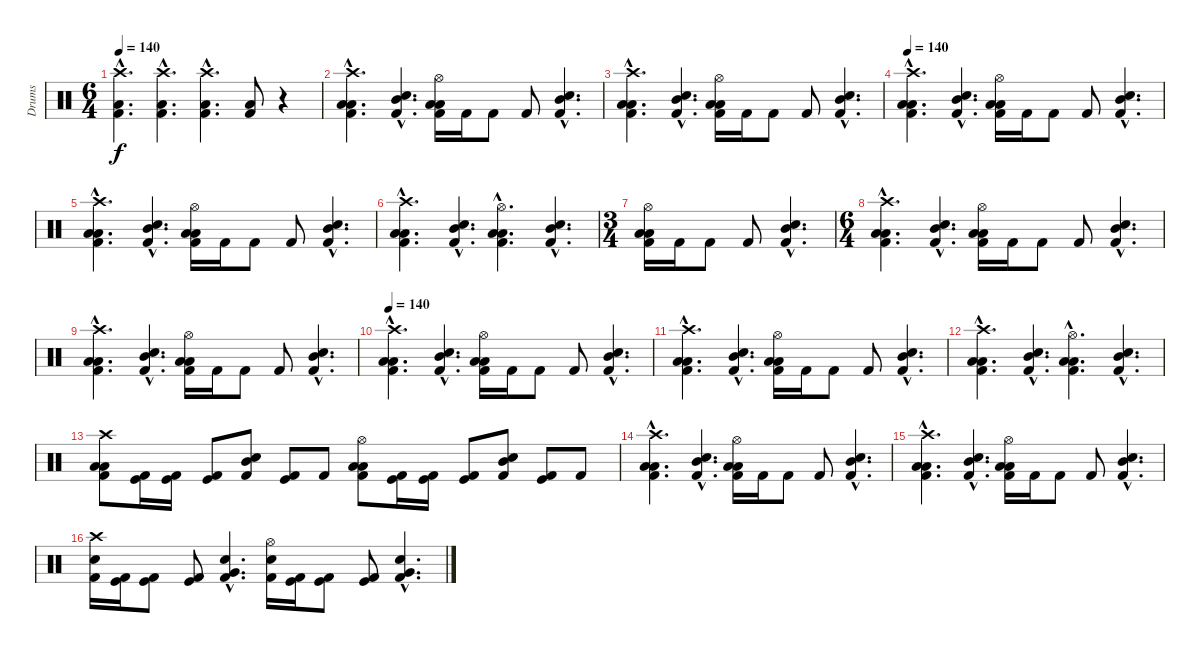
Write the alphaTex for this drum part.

\track ("Drums" "Drums") {instrument percussion}
\staff {score}
\articulation defaults
\ts (6 4)
\tempo 140
\clef neutral
\ks c
("Crash high (hit)"{hac} "Low Tom (hit)"{hac} "Kick (hit) 2"{hac}).4{d dy f} ("Crash high (hit)"{hac} "Low Tom (hit)"{hac} "Kick (hit) 2"{hac}).4{d} ("Crash high (hit)"{hac} "Low Tom (hit)"{hac} "Kick (hit) 2"{hac}).4{d} ("Low Tom (hit)" "Kick (hit) 2").8 r.4 |
("Crash high (hit)"{hac} "Low Tom (hit)"{hac} "Low Tom (hit)"{hac} "Kick (hit) 2"{hac}).4{d} ("Snare (hit) 2"{hac} "Mid Tom (hit)"{hac} "Kick (hit) 2"{hac}).4{d} ("Hi-Hat (open)" "Low Tom (hit)" "Low Tom (hit)" "Kick (hit) 2").16 "Kick (hit) 2".16 "Kick (hit) 2".8 "Kick (hit) 2".8 ("Snare (hit) 2"{hac} "Mid Tom (hit)"{hac} "Kick (hit) 2"{hac}).4{d} |
("Crash high (hit)"{hac} "Low Tom (hit)"{hac} "Low Tom (hit)"{hac} "Kick (hit) 2"{hac}).4{d} ("Snare (hit) 2"{hac} "Mid Tom (hit)"{hac} "Kick (hit) 2"{hac}).4{d} ("Hi-Hat (open)" "Low Tom (hit)" "Low Tom (hit)" "Kick (hit) 2").16 "Kick (hit) 2".16 "Kick (hit) 2".8 "Kick (hit) 2".8 ("Snare (hit) 2"{hac} "Mid Tom (hit)"{hac} "Kick (hit) 2"{hac}).4{d} |
\tempo 140
("Crash high (hit)"{hac} "Low Tom (hit)"{hac} "Low Tom (hit)"{hac} "Kick (hit) 2"{hac}).4{d} ("Snare (hit) 2"{hac} "Mid Tom (hit)"{hac} "Kick (hit) 2"{hac}).4{d} ("Hi-Hat (open)" "Low Tom (hit)" "Low Tom (hit)" "Kick (hit) 2").16 "Kick (hit) 2".16 "Kick (hit) 2".8 "Kick (hit) 2".8 ("Snare (hit) 2"{hac} "Mid Tom (hit)"{hac} "Kick (hit) 2"{hac}).4{d} |
("Crash high (hit)"{hac} "Low Tom (hit)"{hac} "Low Tom (hit)"{hac} "Kick (hit) 2"{hac}).4{d} ("Snare (hit) 2"{hac} "Mid Tom (hit)"{hac} "Kick (hit) 2"{hac}).4{d} ("Hi-Hat (open)" "Low Tom (hit)" "Low Tom (hit)" "Kick (hit) 2").16 "Kick (hit) 2".16 "Kick (hit) 2".8 "Kick (hit) 2".8 ("Snare (hit) 2"{hac} "Mid Tom (hit)"{hac} "Kick (hit) 2"{hac}).4{d} |
("Crash high (hit)"{hac} "Low Tom (hit)"{hac} "Low Tom (hit)"{hac} "Kick (hit) 2"{hac}).4{d} ("Snare (hit) 2"{hac} "Mid Tom (hit)"{hac} "Kick (hit) 2"{hac}).4{d} ("Hi-Hat (open)"{hac} "Low Tom (hit)"{hac} "Low Tom (hit)"{hac} "Kick (hit) 2"{hac}).4{d} ("Snare (hit) 2"{hac} "Mid Tom (hit)"{hac} "Kick (hit) 2"{hac}).4{d} |
\ts (3 4)
("Hi-Hat (open)" "Low Tom (hit)" "Low Tom (hit)" "Kick (hit) 2").16 "Kick (hit) 2".16 "Kick (hit) 2".8 "Kick (hit) 2".8 ("Snare (hit) 2"{hac} "Mid Tom (hit)"{hac} "Kick (hit) 2"{hac}).4{d} |
\ts (6 4)
("Crash high (hit)"{hac} "Low Tom (hit)"{hac} "Low Tom (hit)"{hac} "Kick (hit) 2"{hac}).4{d} ("Snare (hit) 2"{hac} "Mid Tom (hit)"{hac} "Kick (hit) 2"{hac}).4{d} ("Hi-Hat (open)" "Low Tom (hit)" "Low Tom (hit)" "Kick (hit) 2").16 "Kick (hit) 2".16 "Kick (hit) 2".8 "Kick (hit) 2".8 ("Snare (hit) 2"{hac} "Mid Tom (hit)"{hac} "Kick (hit) 2"{hac}).4{d} |
("Crash high (hit)"{hac} "Low Tom (hit)"{hac} "Low Tom (hit)"{hac} "Kick (hit) 2"{hac}).4{d} ("Snare (hit) 2"{hac} "Mid Tom (hit)"{hac} "Kick (hit) 2"{hac}).4{d} ("Hi-Hat (open)" "Low Tom (hit)" "Low Tom (hit)" "Kick (hit) 2").16 "Kick (hit) 2".16 "Kick (hit) 2".8 "Kick (hit) 2".8 ("Snare (hit) 2"{hac} "Mid Tom (hit)"{hac} "Kick (hit) 2"{hac}).4{d} |
\tempo 140
("Crash high (hit)"{hac} "Low Tom (hit)"{hac} "Low Tom (hit)"{hac} "Kick (hit) 2"{hac}).4{d} ("Snare (hit) 2"{hac} "Mid Tom (hit)"{hac} "Kick (hit) 2"{hac}).4{d} ("Hi-Hat (open)" "Low Tom (hit)" "Low Tom (hit)" "Kick (hit) 2").16 "Kick (hit) 2".16 "Kick (hit) 2".8 "Kick (hit) 2".8 ("Snare (hit) 2"{hac} "Mid Tom (hit)"{hac} "Kick (hit) 2"{hac}).4{d} |
("Crash high (hit)"{hac} "Low Tom (hit)"{hac} "Low Tom (hit)"{hac} "Kick (hit) 2"{hac}).4{d} ("Snare (hit) 2"{hac} "Mid Tom (hit)"{hac} "Kick (hit) 2"{hac}).4{d} ("Hi-Hat (open)" "Low Tom (hit)" "Low Tom (hit)" "Kick (hit) 2").16 "Kick (hit) 2".16 "Kick (hit) 2".8 "Kick (hit) 2".8 ("Snare (hit) 2"{hac} "Mid Tom (hit)"{hac} "Kick (hit) 2"{hac}).4{d} |
("Crash high (hit)"{hac} "Low Tom (hit)"{hac} "Low Tom (hit)"{hac} "Kick (hit) 2"{hac}).4{d} ("Snare (hit) 2"{hac} "Mid Tom (hit)"{hac} "Kick (hit) 2"{hac}).4{d} ("Hi-Hat (open)"{hac} "Low Tom (hit)"{hac} "Low Tom (hit)"{hac} "Kick (hit) 2"{hac}).4{d} ("Snare (hit) 2"{hac} "Mid Tom (hit)"{hac} "Kick (hit) 2"{hac}).4{d} |
("Crash high (hit)" "Low Tom (hit)" "Low Tom (hit)" "Kick (hit) 2").8 ("Kick (hit)" "Kick (hit) 2").16 ("Kick (hit)" "Kick (hit) 2").16 ("Kick (hit)" "Kick (hit) 2").8 ("Mid Tom (hit)" "Snare (hit) 2" "Kick (hit) 2").8 ("Kick (hit)" "Kick (hit) 2").8 "Kick (hit) 2".8 ("Hi-Hat (open)" "Low Tom (hit)" "Low Tom (hit)" "Kick (hit) 2").8 ("Kick (hit)" "Kick (hit) 2").16 ("Kick (hit)" "Kick (hit) 2").16 ("Kick (hit)" "Kick (hit) 2").8 ("Mid Tom (hit)" "Snare (hit) 2" "Kick (hit) 2").8 ("Kick (hit)" "Kick (hit) 2").8 "Kick (hit) 2".8 |
("Crash high (hit)"{hac} "Low Tom (hit)"{hac} "Low Tom (hit)"{hac} "Kick (hit) 2"{hac}).4{d} ("Snare (hit) 2"{hac} "Mid Tom (hit)"{hac} "Kick (hit) 2"{hac}).4{d} ("Hi-Hat (open)" "Low Tom (hit)" "Low Tom (hit)" "Kick (hit) 2").16 "Kick (hit) 2".16 "Kick (hit) 2".8 "Kick (hit) 2".8 ("Snare (hit) 2"{hac} "Mid Tom (hit)"{hac} "Kick (hit) 2"{hac}).4{d} |
("Crash high (hit)"{hac} "Low Tom (hit)"{hac} "Low Tom (hit)"{hac} "Kick (hit) 2"{hac}).4{d} ("Snare (hit) 2"{hac} "Mid Tom (hit)"{hac} "Kick (hit) 2"{hac}).4{d} ("Hi-Hat (open)" "Low Tom (hit)" "Low Tom (hit)" "Kick (hit) 2").16 "Kick (hit) 2".16 "Kick (hit) 2".8 "Kick (hit) 2".8 ("Snare (hit) 2"{hac} "Mid Tom (hit)"{hac} "Kick (hit) 2"{hac}).4{d} |
("Crash high (hit)" "Snare (hit) 2" "Kick (hit) 2").16 ("Kick (hit)" "Kick (hit) 2").16 ("Kick (hit)" "Kick (hit) 2").8 ("Kick (hit)" "Kick (hit) 2").8 ("Very Low Tom (hit)"{hac} "Electric Snare (hit)"{hac} "Kick (hit) 2"{hac}).4{d} ("Hi-Hat (open)" "Snare (hit) 2" "Kick (hit) 2").16 ("Kick (hit)" "Kick (hit) 2").16 ("Kick (hit)" "Kick (hit) 2").8 ("Kick (hit)" "Kick (hit) 2").8 ("Very Low Tom (hit)"{hac} "Electric Snare (hit)"{hac} "Kick (hit) 2"{hac}).4{d}
